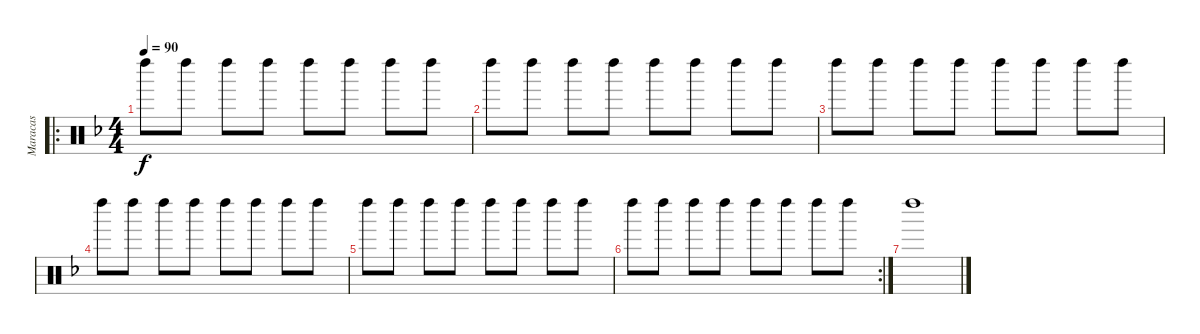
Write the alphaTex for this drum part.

\track ("Maracas" "Maracas") {instrument percussion}
\staff {score}
\articulation defaults
\ro
\ts (4 4)
\tempo 90
\clef neutral
\ks dminor "Left Maraca (hit)".8{dy f} "Left Maraca (hit)".8 "Left Maraca (hit)".8 "Left Maraca (hit)".8 "Left Maraca (hit)".8 "Left Maraca (hit)".8 "Left Maraca (hit)".8 "Left Maraca (hit)".8
|
"Left Maraca (hit)".8 "Left Maraca (hit)".8 "Left Maraca (hit)".8 "Left Maraca (hit)".8 "Left Maraca (hit)".8 "Left Maraca (hit)".8 "Left Maraca (hit)".8 "Left Maraca (hit)".8 |
"Left Maraca (hit)".8 "Left Maraca (hit)".8 "Left Maraca (hit)".8 "Left Maraca (hit)".8 "Left Maraca (hit)".8 "Left Maraca (hit)".8 "Left Maraca (hit)".8 "Left Maraca (hit)".8 |
"Left Maraca (hit)".8 "Left Maraca (hit)".8 "Left Maraca (hit)".8 "Left Maraca (hit)".8 "Left Maraca (hit)".8 "Left Maraca (hit)".8 "Left Maraca (hit)".8 "Left Maraca (hit)".8 |
"Left Maraca (hit)".8 "Left Maraca (hit)".8 "Left Maraca (hit)".8 "Left Maraca (hit)".8 "Left Maraca (hit)".8 "Left Maraca (hit)".8 "Left Maraca (hit)".8 "Left Maraca (hit)".8 |
\rc 2 "Left Maraca (hit)".8 "Left Maraca (hit)".8 "Left Maraca (hit)".8 "Left Maraca (hit)".8 "Left Maraca (hit)".8 "Left Maraca (hit)".8 "Left Maraca (hit)".8 "Left Maraca (hit)".8
|
"Left Maraca (hit)".1
